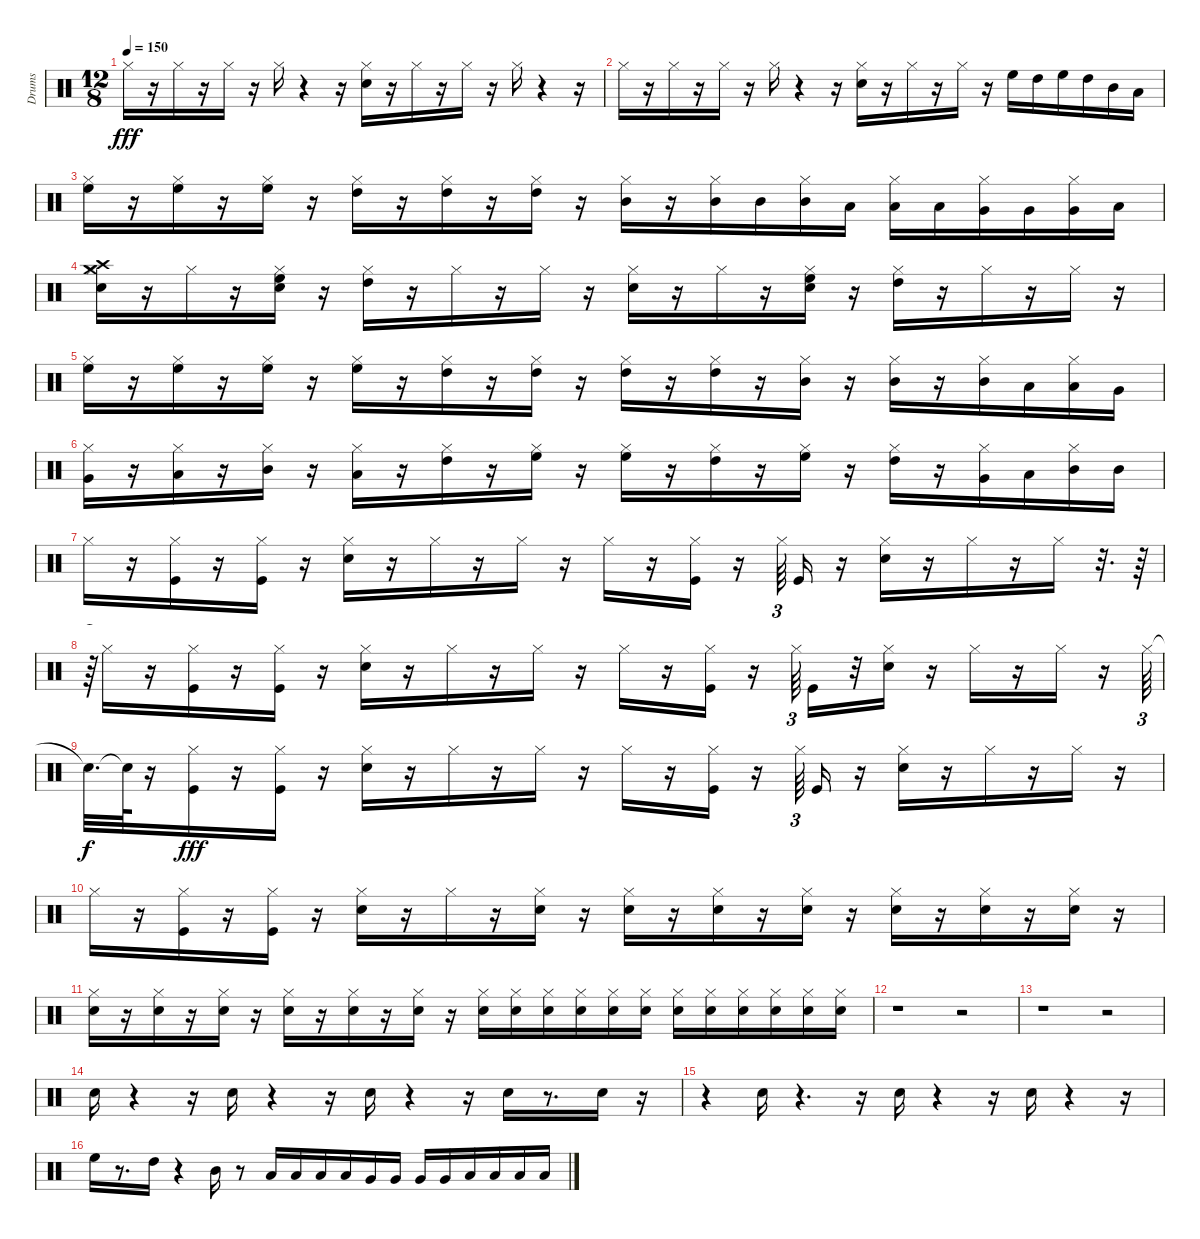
\track ("Drums" "Drums") {instrument percussion}
\staff {score}
\articulation defaults
\ts (12 8)
\tempo 150
\clef neutral
\ks c "Hi-Hat (closed)".16{dy fff}
r.16 "Hi-Hat (closed)".16 r.16 "Hi-Hat (closed)".16 r.16 "Hi-Hat (closed)".16 r.4 r.16 ("Electric Snare (hit)" "Hi-Hat (closed)").16 r.16 "Hi-Hat (closed)".16 r.16 "Hi-Hat (closed)".16 r.16 "Hi-Hat (closed)".16 r.4 r.16 |
"Hi-Hat (closed)".16 r.16 "Hi-Hat (closed)".16 r.16 "Hi-Hat (closed)".16 r.16 "Hi-Hat (closed)".16 r.4 r.16 ("Electric Snare (hit)" "Hi-Hat (closed)").16 r.16 "Hi-Hat (closed)".16 r.16 "Hi-Hat (closed)".16 r.16 "High Floor Tom (hit)".16 "High Tom (hit)".16 "High Floor Tom (hit)".16 "High Tom (hit)".16 "Mid Tom (hit)".16 "Low Tom (hit)".16 |
("High Floor Tom (hit)" "Hi-Hat (closed)").16 r.16 ("Hi-Hat (closed)" "High Floor Tom (hit)").16 r.16 ("High Floor Tom (hit)" "Hi-Hat (closed)").16 r.16 ("Hi-Hat (closed)" "High Tom (hit)").16 r.16 ("High Tom (hit)" "Hi-Hat (closed)").16 r.16 ("Hi-Hat (closed)" "High Tom (hit)").16 r.16 ("Mid Tom (hit)" "Hi-Hat (closed)").16 r.16 ("Hi-Hat (closed)" "Mid Tom (hit)").16 "Mid Tom (hit)".16 ("Mid Tom (hit)" "Hi-Hat (closed)").16 "Low Tom (hit)".16 ("Hi-Hat (closed)" "Low Tom (hit)").16 "Low Tom (hit)".16 ("Very Low Tom (hit)" "Hi-Hat (closed)").16 "Very Low Tom (hit)".16 ("Very Low Tom (hit)" "Hi-Hat (closed)").16 "Low Floor Tom (hit)".16 |
("Hi-Hat (closed)" "Electric Snare (hit)" "Crash medium (hit)" "Crash high (hit)").16 r.16 "Hi-Hat (closed)".16 r.16 ("High Floor Tom (hit)" "Hi-Hat (closed)" "Electric Snare (hit)").16 r.16 ("Hi-Hat (closed)" "High Tom (hit)").16 r.16 "Hi-Hat (closed)".16 r.16 "Hi-Hat (closed)".16 r.16 ("Electric Snare (hit)" "Hi-Hat (closed)").16 r.16 "Hi-Hat (closed)".16 r.16 ("Electric Snare (hit)" "High Floor Tom (hit)" "Hi-Hat (closed)").16 r.16 ("High Tom (hit)" "Hi-Hat (closed)").16 r.16 "Hi-Hat (closed)".16 r.16 "Hi-Hat (closed)".16 r.16 |
("High Floor Tom (hit)" "Hi-Hat (closed)").16 r.16 ("Hi-Hat (closed)" "High Floor Tom (hit)").16 r.16 ("High Floor Tom (hit)" "Hi-Hat (closed)").16 r.16 ("Hi-Hat (closed)" "High Floor Tom (hit)").16 r.16 ("High Tom (hit)" "Hi-Hat (closed)").16 r.16 ("High Tom (hit)" "Hi-Hat (closed)").16 r.16 ("High Tom (hit)" "Hi-Hat (closed)").16 r.16 ("Hi-Hat (closed)" "High Tom (hit)").16 r.16 ("Mid Tom (hit)" "Hi-Hat (closed)").16 r.16 ("Hi-Hat (closed)" "Mid Tom (hit)").16 r.16 ("Mid Tom (hit)" "Hi-Hat (closed)").16 "Low Tom (hit)".16 ("Low Tom (hit)" "Hi-Hat (closed)").16 "Very Low Tom (hit)".16 |
("Very Low Tom (hit)" "Hi-Hat (closed)").16 r.16 ("Hi-Hat (closed)" "Low Tom (hit)").16 r.16 ("Mid Tom (hit)" "Hi-Hat (closed)").16 r.16 ("Hi-Hat (closed)" "Low Tom (hit)").16 r.16 ("High Tom (hit)" "Hi-Hat (closed)").16 r.16 ("Hi-Hat (closed)" "High Floor Tom (hit)").16 r.16 ("High Floor Tom (hit)" "Hi-Hat (closed)").16 r.16 ("Hi-Hat (closed)" "High Tom (hit)").16 r.16 ("High Floor Tom (hit)" "Hi-Hat (closed)").16 r.16 ("Hi-Hat (closed)" "High Tom (hit)").16 r.16 ("Very Low Tom (hit)" "Hi-Hat (closed)").16 "Low Tom (hit)".16 ("Mid Tom (hit)" "Hi-Hat (closed)").16 "Mid Tom (hit)".16 |
"Hi-Hat (closed)".16 r.16 ("Hi-Hat (closed)" "Kick (hit)").16 r.16 ("Hi-Hat (closed)" "Kick (hit)").16 r.16 ("Hi-Hat (closed)" "Snare (hit) 2").16 r.16 "Hi-Hat (closed)".16 r.16 "Hi-Hat (closed)".16 r.16 "Hi-Hat (closed)".16 r.16 ("Hi-Hat (closed)" "Kick (hit)").16 r.16 "Hi-Hat (closed)".64{tu (3 2)} "Kick (hit)".16 r.16 ("Hi-Hat (closed)" "Snare (hit) 2").16 r.16 "Hi-Hat (closed)".16 r.16 "Hi-Hat (closed)".16 r.32{d} r.64 |
r.64{tu (3 2)} "Hi-Hat (closed)".16 r.16 ("Hi-Hat (closed)" "Kick (hit)").16 r.16 ("Hi-Hat (closed)" "Kick (hit)").16 r.16 ("Hi-Hat (closed)" "Snare (hit) 2").16 r.16 "Hi-Hat (closed)".16 r.16 "Hi-Hat (closed)".16 r.16 "Hi-Hat (closed)".16 r.16 ("Hi-Hat (closed)" "Kick (hit)").16 r.16 "Hi-Hat (closed)".64{tu (3 2)} "Kick (hit)".16 r.32 ("Hi-Hat (closed)" "Snare (hit) 2").16 r.16 "Hi-Hat (closed)".16 r.16 "Hi-Hat (closed)".16 r.16 "Hi-Hat (closed)".64{tu (3 2)} |
"Snare (hit)"{t}.32{d dy f} "Snare (hit)"{t}.64 r.16 ("Hi-Hat (closed)" "Kick (hit)").16{dy fff} r.16 ("Hi-Hat (closed)" "Kick (hit)").16 r.16 ("Hi-Hat (closed)" "Snare (hit) 2").16 r.16 "Hi-Hat (closed)".16 r.16 "Hi-Hat (closed)".16 r.16 "Hi-Hat (closed)".16 r.16 ("Hi-Hat (closed)" "Kick (hit)").16 r.16 "Hi-Hat (closed)".64{tu (3 2)} "Kick (hit)".16 r.16 ("Hi-Hat (closed)" "Snare (hit) 2").16 r.16 "Hi-Hat (closed)".16 r.16 "Hi-Hat (closed)".16 r.16 |
"Hi-Hat (closed)".16 r.16 ("Hi-Hat (closed)" "Kick (hit)").16 r.16 ("Hi-Hat (closed)" "Kick (hit)").16 r.16 ("Hi-Hat (closed)" "Snare (hit) 2").16 r.16 "Hi-Hat (closed)".16 r.16 ("Hi-Hat (closed)" "Snare (hit) 2").16 r.16 ("Snare (hit) 2" "Hi-Hat (closed)").16 r.16 ("Hi-Hat (closed)" "Snare (hit) 2").16 r.16 ("Snare (hit) 2" "Hi-Hat (closed)").16 r.16 ("Hi-Hat (closed)" "Snare (hit) 2").16 r.16 ("Snare (hit) 2" "Hi-Hat (closed)").16 r.16 ("Snare (hit) 2" "Hi-Hat (closed)").16 r.16 |
("Snare (hit) 2" "Hi-Hat (closed)").16 r.16 ("Hi-Hat (closed)" "Snare (hit) 2").16 r.16 ("Snare (hit) 2" "Hi-Hat (closed)").16 r.16 ("Snare (hit) 2" "Hi-Hat (closed)").16 r.16 ("Hi-Hat (closed)" "Snare (hit) 2").16 r.16 ("Hi-Hat (closed)" "Snare (hit) 2").16 r.16 ("Snare (hit) 2" "Hi-Hat (closed)").16 ("Snare (hit) 2" "Hi-Hat (closed)").16 ("Hi-Hat (closed)" "Snare (hit) 2").16 ("Snare (hit) 2" "Hi-Hat (closed)").16 ("Hi-Hat (closed)" "Snare (hit) 2").16 ("Hi-Hat (closed)" "Snare (hit) 2").16 ("Hi-Hat (closed)" "Snare (hit) 2").16 ("Snare (hit) 2" "Hi-Hat (closed)").16 ("Snare (hit) 2" "Hi-Hat (closed)").16 ("Snare (hit) 2" "Hi-Hat (closed)").16 ("Snare (hit) 2" "Hi-Hat (closed)").16 ("Snare (hit) 2" "Hi-Hat (closed)").16 |
r.1 r.2 |
r.1 r.2 |
"Electric Snare (hit)".16 r.4 r.16 "Electric Snare (hit)".16 r.4 r.16 "Electric Snare (hit)".16 r.4 r.16 "Electric Snare (hit)".16 r.8{d} "Electric Snare (hit)".16 r.16 |
r.4 "Electric Snare (hit)".16 r.4{d} r.16 "Electric Snare (hit)".16 r.4 r.16 "Electric Snare (hit)".16 r.4 r.16 |
"High Floor Tom (hit)".16 r.8{d} "High Tom (hit)".16 r.4 "Mid Tom (hit)".16 r.8 "Low Tom (hit)".16 "Low Tom (hit)".16 "Low Tom (hit)".16 "Low Tom (hit)".16 "Very Low Tom (hit)".16 "Very Low Tom (hit)".16 "Very Low Tom (hit)".16 "Very Low Tom (hit)".16 "Low Floor Tom (hit)".16 "Low Floor Tom (hit)".16 "Low Floor Tom (hit)".16 "Low Floor Tom (hit)".16
